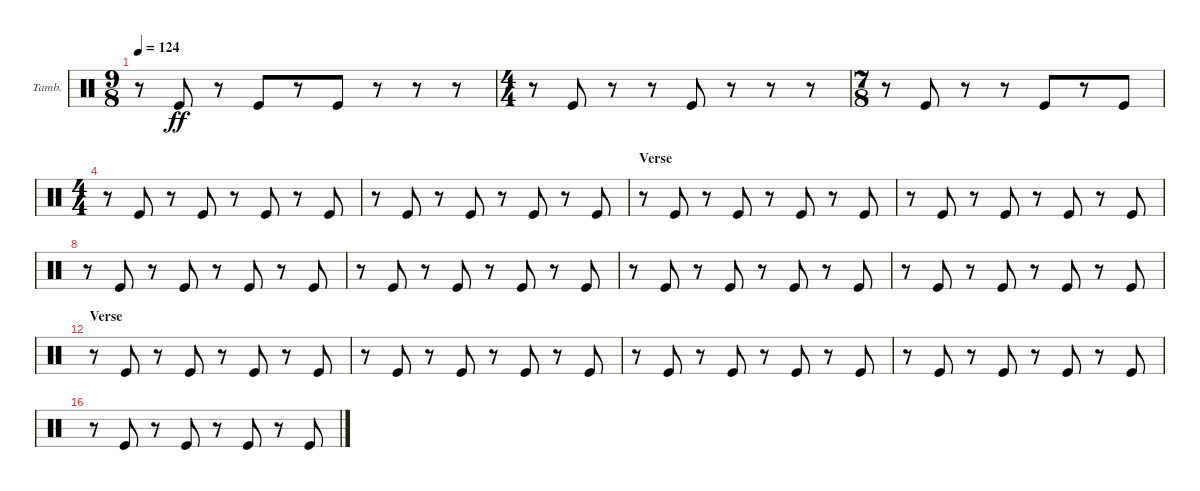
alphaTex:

\bracketExtendMode nobrackets
\firstSystemTrackNameOrientation horizontal
\otherSystemsTrackNameOrientation horizontal
\defaultBarNumberDisplay FirstOfSystem
\track ("Tambourine" "Tamb.") {instrument percussion}
\staff {score}
\articulation defaults
\ts (9 8)
\scale
0.448485
\tempo 124
\accidentals auto
\clef neutral
\ottava regular
\simile none
\scale
0.333333
\ks c
r.8{dy ff} "Kick (hit)".8 r.8 "Kick (hit)".8 r.8 "Kick (hit)".8 r.8 r.8 r.8 |
\ts (4 4)
\scale
0.290909
\scale
0.333333 r.8 "Kick (hit)".8 r.8 r.8 "Kick (hit)".8 r.8 r.8 r.8 |
\ts (7 8)
\scale
0.260606
\scale
0.369863 r.8 "Kick (hit)".8 r.8 r.8 "Kick (hit)".8 r.8 "Kick (hit)".8 |
\ts (4 4)
\scale
0.352941
\scale
0.369863 r.8 "Kick (hit)".8 r.8 "Kick (hit)".8 r.8 "Kick (hit)".8 r.8 "Kick (hit)".8 |
\scale
0.323529
\scale
0.260274 r.8 "Kick (hit)".8 r.8 "Kick (hit)".8 r.8 "Kick (hit)".8 r.8 "Kick (hit)".8 |
\section ("" "Verse")
\scale
0.323529
\scale
0.333333 r.8 "Kick (hit)".8 r.8 "Kick (hit)".8 r.8 "Kick (hit)".8 r.8 "Kick (hit)".8 |
\scale
0.312
\scale
0.333333 r.8 "Kick (hit)".8 r.8 "Kick (hit)".8 r.8 "Kick (hit)".8 r.8 "Kick (hit)".8 |
\scale
0.376
\scale
0.333333 r.8 "Kick (hit)".8 r.8 "Kick (hit)".8 r.8 "Kick (hit)".8 r.8 "Kick (hit)".8 |
\scale
0.312
\scale
0.333333 r.8 "Kick (hit)".8 r.8 "Kick (hit)".8 r.8 "Kick (hit)".8 r.8 "Kick (hit)".8 |
\scale
0.371429
\scale
0.333333 r.8 "Kick (hit)".8 r.8 "Kick (hit)".8 r.8 "Kick (hit)".8 r.8 "Kick (hit)".8 |
\scale
0.314286
\scale
0.333333 r.8 "Kick (hit)".8 r.8 "Kick (hit)".8 r.8 "Kick (hit)".8 r.8 "Kick (hit)".8 |
\section ("" "Verse")
\scale
0.314286
\scale
0.333333 r.8 "Kick (hit)".8 r.8 "Kick (hit)".8 r.8 "Kick (hit)".8 r.8 "Kick (hit)".8 |
\scale
0.312
\scale
0.333333 r.8 "Kick (hit)".8 r.8 "Kick (hit)".8 r.8 "Kick (hit)".8 r.8 "Kick (hit)".8 |
\scale
0.376
\scale
0.333333 r.8 "Kick (hit)".8 r.8 "Kick (hit)".8 r.8 "Kick (hit)".8 r.8 "Kick (hit)".8 |
\scale
0.312
\scale
0.333333 r.8 "Kick (hit)".8 r.8 "Kick (hit)".8 r.8 "Kick (hit)".8 r.8 "Kick (hit)".8 |
\scale
0.333333 r.8 "Kick (hit)".8 r.8 "Kick (hit)".8 r.8 "Kick (hit)".8 r.8 "Kick (hit)".8
